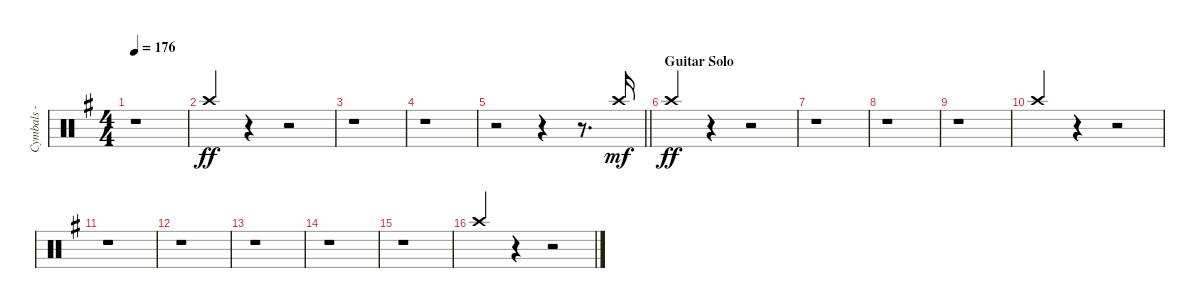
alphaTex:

\track ("Cymbals - crash" "Cymbals - ") {instrument percussion}
\staff {score}
\articulation defaults
\ts (4 4)
\tempo 176
\clef neutral
\ks eminor
r.1{dy ff} |
"Crash high (hit)".4{beam Up} r.4 r.2 |
r.1 |
r.1 |
\barLineRight lightlight
r.2{beam Up} r.4{beam Up} r.8{d beam Up} "Crash high (hit)".16{dy mf beam Up} |
\section ("" "Guitar Solo")
"Crash high (hit)".4{dy ff beam Up} r.4 r.2 |
r.1 |
r.1 |
r.1 |
"Crash high (hit)".4{beam Up} r.4 r.2 |
r.1 |
r.1 |
r.1 |
r.1 |
r.1 |
"Crash high (hit)".4{beam Up} r.4 r.2
